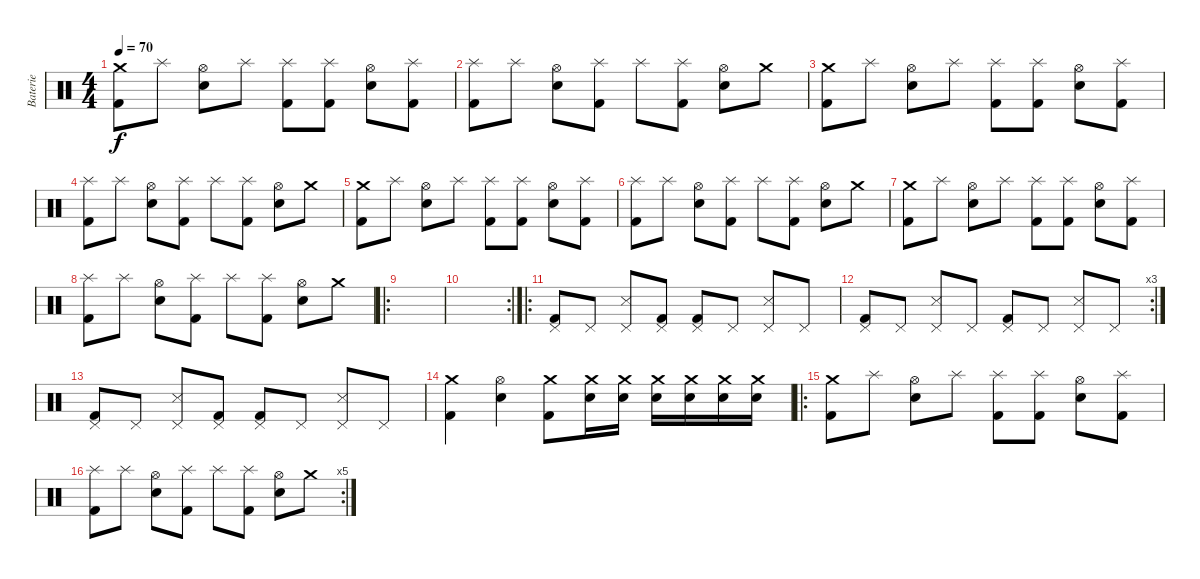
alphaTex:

\track ("Baterie" "Baterie") {instrument percussion}
\staff {score}
\articulation defaults
\ts (4 4)
\tempo 70
\clef neutral
\ks c
("Crash medium (hit)" "Kick (hit) 2").8{dy f} "Splash (hit)".8 ("Hi-Hat (open)" "Electric Snare (hit)").8 "Splash (hit)".8 ("Splash (hit)" "Kick (hit) 2").8 ("Splash (hit)" "Kick (hit) 2").8 ("Hi-Hat (open)" "Electric Snare (hit)").8 ("Splash (hit)" "Kick (hit) 2").8 |
("Splash (hit)" "Kick (hit) 2").8 "Splash (hit)".8 ("Hi-Hat (open)" "Electric Snare (hit)").8 ("Splash (hit)" "Kick (hit) 2").8 "Splash (hit)".8 ("Splash (hit)" "Kick (hit) 2").8 ("Hi-Hat (open)" "Electric Snare (hit)").8 "Crash medium (hit)".8 |
("Crash medium (hit)" "Kick (hit) 2").8 "Splash (hit)".8 ("Hi-Hat (open)" "Electric Snare (hit)").8 "Splash (hit)".8 ("Splash (hit)" "Kick (hit) 2").8 ("Splash (hit)" "Kick (hit) 2").8 ("Hi-Hat (open)" "Electric Snare (hit)").8 ("Splash (hit)" "Kick (hit) 2").8 |
("Splash (hit)" "Kick (hit) 2").8 "Splash (hit)".8 ("Hi-Hat (open)" "Electric Snare (hit)").8 ("Splash (hit)" "Kick (hit) 2").8 "Splash (hit)".8 ("Splash (hit)" "Kick (hit) 2").8 ("Hi-Hat (open)" "Electric Snare (hit)").8 "Crash medium (hit)".8 |
("Crash medium (hit)" "Kick (hit) 2").8 "Splash (hit)".8 ("Hi-Hat (open)" "Electric Snare (hit)").8 "Splash (hit)".8 ("Splash (hit)" "Kick (hit) 2").8 ("Splash (hit)" "Kick (hit) 2").8 ("Hi-Hat (open)" "Electric Snare (hit)").8 ("Splash (hit)" "Kick (hit) 2").8 |
("Splash (hit)" "Kick (hit) 2").8 "Splash (hit)".8 ("Hi-Hat (open)" "Electric Snare (hit)").8 ("Splash (hit)" "Kick (hit) 2").8 "Splash (hit)".8 ("Splash (hit)" "Kick (hit) 2").8 ("Hi-Hat (open)" "Electric Snare (hit)").8 "Crash medium (hit)".8 |
("Crash medium (hit)" "Kick (hit) 2").8 "Splash (hit)".8 ("Hi-Hat (open)" "Electric Snare (hit)").8 "Splash (hit)".8 ("Splash (hit)" "Kick (hit) 2").8 ("Splash (hit)" "Kick (hit) 2").8 ("Hi-Hat (open)" "Electric Snare (hit)").8 ("Splash (hit)" "Kick (hit) 2").8 |
("Splash (hit)" "Kick (hit) 2").8 "Splash (hit)".8 ("Hi-Hat (open)" "Electric Snare (hit)").8 ("Splash (hit)" "Kick (hit) 2").8 "Splash (hit)".8 ("Splash (hit)" "Kick (hit) 2").8 ("Hi-Hat (open)" "Electric Snare (hit)").8 "Crash medium (hit)".8 |
\ro
|
\rc 2
|
\ro
("Pedal Hi-Hat (hit)" "Kick (hit) 2").8 "Pedal Hi-Hat (hit)".8 ("Pedal Hi-Hat (hit)" "Snare (side stick) 3").8 ("Pedal Hi-Hat (hit)" "Kick (hit) 2").8 ("Pedal Hi-Hat (hit)" "Kick (hit) 2").8 "Pedal Hi-Hat (hit)".8 ("Pedal Hi-Hat (hit)" "Snare (side stick) 3").8 "Pedal Hi-Hat (hit)".8 |
\rc 3
("Pedal Hi-Hat (hit)" "Kick (hit) 2").8 "Pedal Hi-Hat (hit)".8 ("Pedal Hi-Hat (hit)" "Snare (side stick) 3").8 "Pedal Hi-Hat (hit)".8 ("Pedal Hi-Hat (hit)" "Kick (hit) 2").8 "Pedal Hi-Hat (hit)".8 ("Pedal Hi-Hat (hit)" "Snare (side stick) 3").8 "Pedal Hi-Hat (hit)".8 |
("Pedal Hi-Hat (hit)" "Kick (hit) 2").8 "Pedal Hi-Hat (hit)".8 ("Pedal Hi-Hat (hit)" "Snare (side stick) 3").8 ("Pedal Hi-Hat (hit)" "Kick (hit) 2").8 ("Pedal Hi-Hat (hit)" "Kick (hit) 2").8 "Pedal Hi-Hat (hit)".8 ("Pedal Hi-Hat (hit)" "Snare (side stick) 3").8 "Pedal Hi-Hat (hit)".8 |
("Crash medium (hit)" "Kick (hit) 2").4 ("Hi-Hat (open)" "Electric Snare (hit)").4 ("Crash medium (hit)" "Kick (hit) 2").8 ("Crash medium (hit)" "Electric Snare (hit)").16 ("Crash medium (hit)" "Electric Snare (hit)").16 ("Crash medium (hit)" "Electric Snare (hit)").16 ("Crash medium (hit)" "Electric Snare (hit)").16 ("Crash medium (hit)" "Electric Snare (hit)").16 ("Crash medium (hit)" "Electric Snare (hit)").16 |
\ro
("Crash medium (hit)" "Kick (hit) 2").8 "Splash (hit)".8 ("Hi-Hat (open)" "Electric Snare (hit)").8 "Splash (hit)".8 ("Splash (hit)" "Kick (hit) 2").8 ("Splash (hit)" "Kick (hit) 2").8 ("Hi-Hat (open)" "Electric Snare (hit)").8 ("Splash (hit)" "Kick (hit) 2").8 |
\rc 5
("Splash (hit)" "Kick (hit) 2").8 "Splash (hit)".8 ("Hi-Hat (open)" "Electric Snare (hit)").8 ("Splash (hit)" "Kick (hit) 2").8 "Splash (hit)".8 ("Splash (hit)" "Kick (hit) 2").8 ("Hi-Hat (open)" "Electric Snare (hit)").8 "Crash medium (hit)".8
